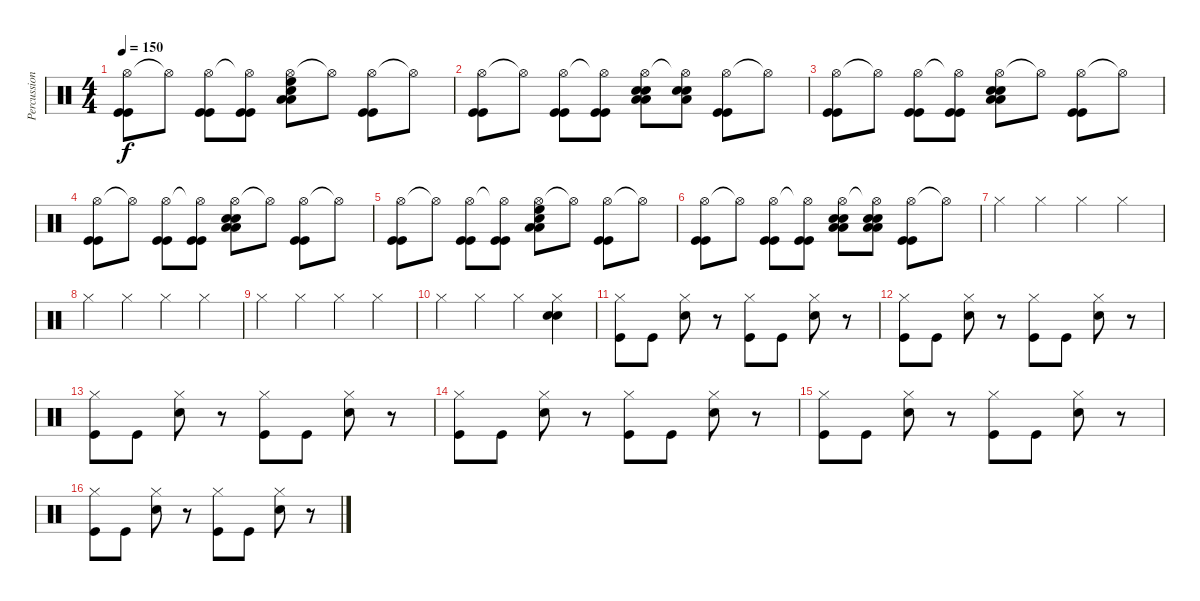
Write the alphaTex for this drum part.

\track ("Percussion" "Percussion") {instrument percussion}
\staff {score}
\articulation defaults
\ts (4 4)
\tempo 150
\clef neutral
\ks c
("Hi-Hat (open)" "Kick (hit)" "Kick (hit)").8{dy f} "Hi-Hat (open)"{t}.8 ("Hi-Hat (open)" "Kick (hit)" "Kick (hit)").8 ("Hi-Hat (open)"{t} "Kick (hit)" "Kick (hit)").8 ("Hi-Hat (open)" "Electric Snare (hit)" "High Floor Tom (hit)" "Low Tom (hit)" "Low Tom (hit)").8 "Hi-Hat (open)"{t}.8 ("Hi-Hat (open)" "Kick (hit)" "Kick (hit)").8 "Hi-Hat (open)"{t}.8 |
("Hi-Hat (open)" "Kick (hit)" "Kick (hit)").8 "Hi-Hat (open)"{t}.8 ("Hi-Hat (open)" "Kick (hit)" "Kick (hit)").8 ("Hi-Hat (open)"{t} "Kick (hit)" "Kick (hit)").8 ("Hi-Hat (open)" "Electric Snare (hit)" "Electric Snare (hit)" "Low Tom (hit)" "Low Tom (hit)").8 ("Hi-Hat (open)"{t} "Electric Snare (hit)" "Electric Snare (hit)" "Low Tom (hit)").8 ("Hi-Hat (open)" "Kick (hit)" "Kick (hit)").8 "Hi-Hat (open)"{t}.8 |
("Hi-Hat (open)" "Kick (hit)" "Kick (hit)").8 "Hi-Hat (open)"{t}.8 ("Hi-Hat (open)" "Kick (hit)" "Kick (hit)").8 ("Hi-Hat (open)"{t} "Kick (hit)" "Kick (hit)").8 ("Hi-Hat (open)" "Electric Snare (hit)" "Electric Snare (hit)" "Low Tom (hit)" "Low Tom (hit)").8 "Hi-Hat (open)"{t}.8 ("Hi-Hat (open)" "Kick (hit)" "Kick (hit)").8 "Hi-Hat (open)"{t}.8 |
("Hi-Hat (open)" "Kick (hit)" "Kick (hit)").8 "Hi-Hat (open)"{t}.8 ("Hi-Hat (open)" "Kick (hit)" "Kick (hit)").8 ("Hi-Hat (open)"{t} "Kick (hit)" "Kick (hit)").8 ("Hi-Hat (open)" "Electric Snare (hit)" "Electric Snare (hit)" "Low Tom (hit)" "Low Tom (hit)").8 "Hi-Hat (open)"{t}.8 ("Hi-Hat (open)" "Kick (hit)" "Kick (hit)").8 "Hi-Hat (open)"{t}.8 |
("Hi-Hat (open)" "Kick (hit)" "Kick (hit)").8 "Hi-Hat (open)"{t}.8 ("Hi-Hat (open)" "Kick (hit)" "Kick (hit)").8 ("Hi-Hat (open)"{t} "Kick (hit)" "Kick (hit)").8 ("Hi-Hat (open)" "Electric Snare (hit)" "High Floor Tom (hit)" "Low Tom (hit)" "Low Tom (hit)").8 "Hi-Hat (open)"{t}.8 ("Hi-Hat (open)" "Kick (hit)" "Kick (hit)").8 "Hi-Hat (open)"{t}.8 |
("Hi-Hat (open)" "Kick (hit)" "Kick (hit)").8 "Hi-Hat (open)"{t}.8 ("Hi-Hat (open)" "Kick (hit)" "Kick (hit)").8 ("Hi-Hat (open)"{t} "Kick (hit)" "Kick (hit)").8 ("Hi-Hat (open)" "Electric Snare (hit)" "Electric Snare (hit)" "Low Tom (hit)" "Low Tom (hit)").8 ("Hi-Hat (open)"{t} "Electric Snare (hit)" "Electric Snare (hit)" "Low Tom (hit)" "Low Tom (hit)").8 ("Hi-Hat (open)" "Kick (hit)" "Kick (hit)").8 "Hi-Hat (open)"{t}.8 |
"Hi-Hat (closed)".4 "Hi-Hat (closed)".4 "Hi-Hat (closed)".4 "Hi-Hat (closed)".4 |
"Hi-Hat (closed)".4 "Hi-Hat (closed)".4 "Hi-Hat (closed)".4 "Hi-Hat (closed)".4 |
"Hi-Hat (closed)".4 "Hi-Hat (closed)".4 "Hi-Hat (closed)".4 "Hi-Hat (closed)".4 |
"Hi-Hat (closed)".4 "Hi-Hat (closed)".4 "Hi-Hat (closed)".4 ("Hi-Hat (closed)" "Electric Snare (hit)" "Electric Snare (hit)").4 |
("Hi-Hat (closed)" "Kick (hit)").8 "Kick (hit)".8 ("Hi-Hat (closed)" "Electric Snare (hit)").8 r.8 ("Hi-Hat (closed)" "Kick (hit)").8 "Kick (hit)".8 ("Hi-Hat (closed)" "Electric Snare (hit)").8 r.8 |
("Hi-Hat (closed)" "Kick (hit)").8 "Kick (hit)".8 ("Hi-Hat (closed)" "Electric Snare (hit)").8 r.8 ("Hi-Hat (closed)" "Kick (hit)").8 "Kick (hit)".8 ("Hi-Hat (closed)" "Electric Snare (hit)").8 r.8 |
("Hi-Hat (closed)" "Kick (hit)").8 "Kick (hit)".8 ("Hi-Hat (closed)" "Electric Snare (hit)").8 r.8 ("Hi-Hat (closed)" "Kick (hit)").8 "Kick (hit)".8 ("Hi-Hat (closed)" "Electric Snare (hit)").8 r.8 |
("Hi-Hat (closed)" "Kick (hit)").8 "Kick (hit)".8 ("Hi-Hat (closed)" "Electric Snare (hit)").8 r.8 ("Hi-Hat (closed)" "Kick (hit)").8 "Kick (hit)".8 ("Hi-Hat (closed)" "Electric Snare (hit)").8 r.8 |
("Hi-Hat (closed)" "Kick (hit)").8 "Kick (hit)".8 ("Hi-Hat (closed)" "Electric Snare (hit)").8 r.8 ("Hi-Hat (closed)" "Kick (hit)").8 "Kick (hit)".8 ("Hi-Hat (closed)" "Electric Snare (hit)").8 r.8 |
("Hi-Hat (closed)" "Kick (hit)").8 "Kick (hit)".8 ("Hi-Hat (closed)" "Electric Snare (hit)").8 r.8 ("Hi-Hat (closed)" "Kick (hit)").8 "Kick (hit)".8 ("Hi-Hat (closed)" "Electric Snare (hit)").8 r.8
